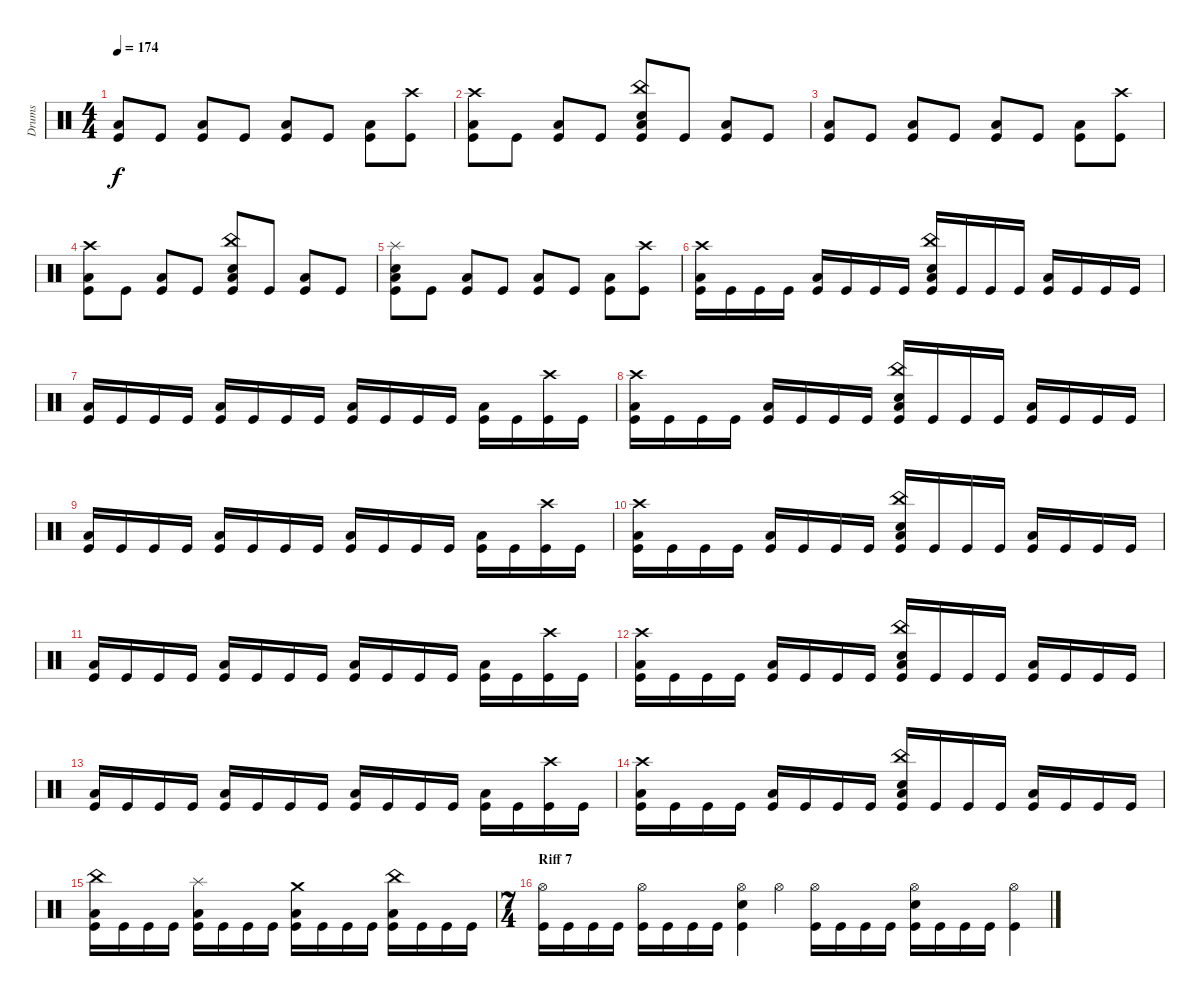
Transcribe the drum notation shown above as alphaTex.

\track ("Drums" "Drums") {instrument percussion}
\staff {score}
\articulation defaults
\ts (4 4)
\tempo 174
\clef neutral
\ks c
("Low Floor Tom (hit)" "Kick (hit)").8{dy f} "Kick (hit)".8 ("Low Floor Tom (hit)" "Kick (hit)").8 "Kick (hit)".8 ("Low Floor Tom (hit)" "Kick (hit)").8 "Kick (hit)".8 ("Low Floor Tom (hit)" "Kick (hit)").8 ("Crash high (hit)" "Kick (hit)").8 |
("Crash high (hit)" "Low Floor Tom (hit)" "Kick (hit)").8 "Kick (hit)".8 ("Low Floor Tom (hit)" "Kick (hit)").8 "Kick (hit)".8 ("China (hit)" "Low Floor Tom (hit)" "Electric Snare (hit)" "Kick (hit)").8 "Kick (hit)".8 ("Low Floor Tom (hit)" "Kick (hit)").8 "Kick (hit)".8 |
("Low Floor Tom (hit)" "Kick (hit)").8 "Kick (hit)".8 ("Low Floor Tom (hit)" "Kick (hit)").8 "Kick (hit)".8 ("Low Floor Tom (hit)" "Kick (hit)").8 "Kick (hit)".8 ("Low Floor Tom (hit)" "Kick (hit)").8 ("Crash high (hit)" "Kick (hit)").8 |
("Crash high (hit)" "Low Floor Tom (hit)" "Kick (hit)").8 "Kick (hit)".8 ("Low Floor Tom (hit)" "Kick (hit)").8 "Kick (hit)".8 ("China (hit)" "Low Floor Tom (hit)" "Electric Snare (hit)" "Kick (hit)").8 "Kick (hit)".8 ("Low Floor Tom (hit)" "Kick (hit)").8 "Kick (hit)".8 |
("Splash (hit)" "Low Floor Tom (hit)" "Electric Snare (hit)" "Kick (hit)").8 "Kick (hit)".8 ("Low Floor Tom (hit)" "Kick (hit)").8 "Kick (hit)".8 ("Low Floor Tom (hit)" "Kick (hit)").8 "Kick (hit)".8 ("Low Floor Tom (hit)" "Kick (hit)").8 ("Crash high (hit)" "Kick (hit)").8 |
("Crash high (hit)" "Low Floor Tom (hit)" "Kick (hit)").16 "Kick (hit)".16 "Kick (hit)".16 "Kick (hit)".16 ("Low Floor Tom (hit)" "Kick (hit)").16 "Kick (hit)".16 "Kick (hit)".16 "Kick (hit)".16 ("China (hit)" "Low Floor Tom (hit)" "Electric Snare (hit)" "Kick (hit)").16 "Kick (hit)".16 "Kick (hit)".16 "Kick (hit)".16 ("Low Floor Tom (hit)" "Kick (hit)").16 "Kick (hit)".16 "Kick (hit)".16 "Kick (hit)".16 |
("Low Floor Tom (hit)" "Kick (hit)").16 "Kick (hit)".16 "Kick (hit)".16 "Kick (hit)".16 ("Low Floor Tom (hit)" "Kick (hit)").16 "Kick (hit)".16 "Kick (hit)".16 "Kick (hit)".16 ("Low Floor Tom (hit)" "Kick (hit)").16 "Kick (hit)".16 "Kick (hit)".16 "Kick (hit)".16 ("Low Floor Tom (hit)" "Kick (hit)").16 "Kick (hit)".16 ("Crash high (hit)" "Kick (hit)").16 "Kick (hit)".16 |
("Crash high (hit)" "Low Floor Tom (hit)" "Kick (hit)").16 "Kick (hit)".16 "Kick (hit)".16 "Kick (hit)".16 ("Low Floor Tom (hit)" "Kick (hit)").16 "Kick (hit)".16 "Kick (hit)".16 "Kick (hit)".16 ("China (hit)" "Low Floor Tom (hit)" "Electric Snare (hit)" "Kick (hit)").16 "Kick (hit)".16 "Kick (hit)".16 "Kick (hit)".16 ("Low Floor Tom (hit)" "Kick (hit)").16 "Kick (hit)".16 "Kick (hit)".16 "Kick (hit)".16 |
("Low Floor Tom (hit)" "Kick (hit)").16 "Kick (hit)".16 "Kick (hit)".16 "Kick (hit)".16 ("Low Floor Tom (hit)" "Kick (hit)").16 "Kick (hit)".16 "Kick (hit)".16 "Kick (hit)".16 ("Low Floor Tom (hit)" "Kick (hit)").16 "Kick (hit)".16 "Kick (hit)".16 "Kick (hit)".16 ("Low Floor Tom (hit)" "Kick (hit)").16 "Kick (hit)".16 ("Crash high (hit)" "Kick (hit)").16 "Kick (hit)".16 |
("Crash high (hit)" "Low Floor Tom (hit)" "Kick (hit)").16 "Kick (hit)".16 "Kick (hit)".16 "Kick (hit)".16 ("Low Floor Tom (hit)" "Kick (hit)").16 "Kick (hit)".16 "Kick (hit)".16 "Kick (hit)".16 ("China (hit)" "Low Floor Tom (hit)" "Electric Snare (hit)" "Kick (hit)").16 "Kick (hit)".16 "Kick (hit)".16 "Kick (hit)".16 ("Low Floor Tom (hit)" "Kick (hit)").16 "Kick (hit)".16 "Kick (hit)".16 "Kick (hit)".16 |
("Low Floor Tom (hit)" "Kick (hit)").16 "Kick (hit)".16 "Kick (hit)".16 "Kick (hit)".16 ("Low Floor Tom (hit)" "Kick (hit)").16 "Kick (hit)".16 "Kick (hit)".16 "Kick (hit)".16 ("Low Floor Tom (hit)" "Kick (hit)").16 "Kick (hit)".16 "Kick (hit)".16 "Kick (hit)".16 ("Low Floor Tom (hit)" "Kick (hit)").16 "Kick (hit)".16 ("Crash high (hit)" "Kick (hit)").16 "Kick (hit)".16 |
("Crash high (hit)" "Low Floor Tom (hit)" "Kick (hit)").16 "Kick (hit)".16 "Kick (hit)".16 "Kick (hit)".16 ("Low Floor Tom (hit)" "Kick (hit)").16 "Kick (hit)".16 "Kick (hit)".16 "Kick (hit)".16 ("China (hit)" "Low Floor Tom (hit)" "Electric Snare (hit)" "Kick (hit)").16 "Kick (hit)".16 "Kick (hit)".16 "Kick (hit)".16 ("Low Floor Tom (hit)" "Kick (hit)").16 "Kick (hit)".16 "Kick (hit)".16 "Kick (hit)".16 |
("Low Floor Tom (hit)" "Kick (hit)").16 "Kick (hit)".16 "Kick (hit)".16 "Kick (hit)".16 ("Low Floor Tom (hit)" "Kick (hit)").16 "Kick (hit)".16 "Kick (hit)".16 "Kick (hit)".16 ("Low Floor Tom (hit)" "Kick (hit)").16 "Kick (hit)".16 "Kick (hit)".16 "Kick (hit)".16 ("Low Floor Tom (hit)" "Kick (hit)").16 "Kick (hit)".16 ("Crash high (hit)" "Kick (hit)").16 "Kick (hit)".16 |
("Crash high (hit)" "Low Floor Tom (hit)" "Kick (hit)").16 "Kick (hit)".16 "Kick (hit)".16 "Kick (hit)".16 ("Low Floor Tom (hit)" "Kick (hit)").16 "Kick (hit)".16 "Kick (hit)".16 "Kick (hit)".16 ("China (hit)" "Low Floor Tom (hit)" "Electric Snare (hit)" "Kick (hit)").16 "Kick (hit)".16 "Kick (hit)".16 "Kick (hit)".16 ("Low Floor Tom (hit)" "Kick (hit)").16 "Kick (hit)".16 "Kick (hit)".16 "Kick (hit)".16 |
("China (hit)" "Low Floor Tom (hit)" "Kick (hit)").16 "Kick (hit)".16 "Kick (hit)".16 "Kick (hit)".16 ("Splash (hit)" "Low Floor Tom (hit)" "Kick (hit)").16 "Kick (hit)".16 "Kick (hit)".16 "Kick (hit)".16 ("Crash medium (hit)" "Low Floor Tom (hit)" "Kick (hit)").16 "Kick (hit)".16 "Kick (hit)".16 "Kick (hit)".16 ("China (hit)" "Low Floor Tom (hit)" "Kick (hit)").16 "Kick (hit)".16 "Kick (hit)".16 "Kick (hit)".16 |
\ts (7 4)
\section ("" "Riff 7")
("Hi-Hat (open)" "Kick (hit)").16 "Kick (hit)".16 "Kick (hit)".16 "Kick (hit)".16 ("Hi-Hat (open)" "Kick (hit)").16 "Kick (hit)".16 "Kick (hit)".16 "Kick (hit)".16 ("Hi-Hat (open)" "Electric Snare (hit)" "Kick (hit)").4 "Hi-Hat (open)".4 ("Hi-Hat (open)" "Kick (hit)").16 "Kick (hit)".16 "Kick (hit)".16 "Kick (hit)".16 ("Hi-Hat (open)" "Electric Snare (hit)" "Kick (hit)").16 "Kick (hit)".16 "Kick (hit)".16 "Kick (hit)".16 ("Hi-Hat (open)" "Kick (hit)").4
